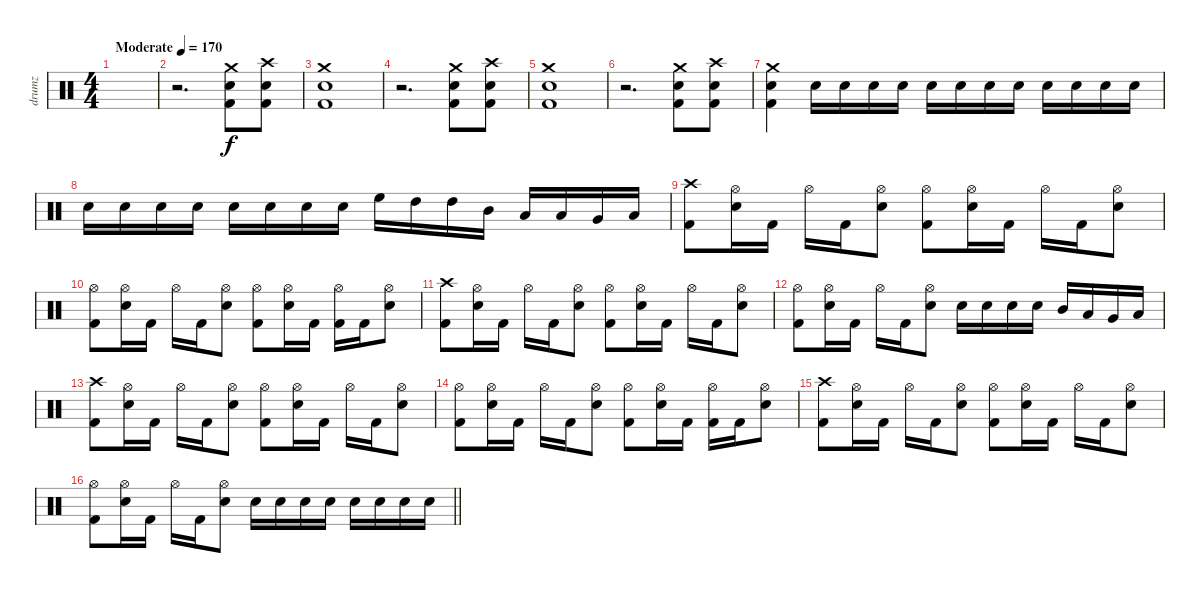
\track ("drumz" "drumz") {instrument percussion}
\staff {score}
\articulation defaults
\ts (4 4)
\tempo (170 "Moderate")
\clef neutral
\ks c
|
r.2{d} ("Crash medium (hit)" "Electric Snare (hit)" "Kick (hit) 2").8 ("Crash high (hit)" "Electric Snare (hit)" "Kick (hit) 2").8 |
("Crash medium (hit)" "Electric Snare (hit)" "Kick (hit) 2").1 |
r.2{d} ("Crash medium (hit)" "Electric Snare (hit)" "Kick (hit) 2").8 ("Crash high (hit)" "Electric Snare (hit)" "Kick (hit) 2").8 |
("Crash medium (hit)" "Electric Snare (hit)" "Kick (hit) 2").1 |
r.2{d} ("Crash medium (hit)" "Electric Snare (hit)" "Kick (hit) 2").8 ("Crash high (hit)" "Electric Snare (hit)" "Kick (hit) 2").8 |
("Crash medium (hit)" "Electric Snare (hit)" "Kick (hit) 2").4 "Electric Snare (hit)".16 "Electric Snare (hit)".16 "Electric Snare (hit)".16 "Electric Snare (hit)".16 "Electric Snare (hit)".16 "Electric Snare (hit)".16 "Electric Snare (hit)".16 "Electric Snare (hit)".16 "Electric Snare (hit)".16 "Electric Snare (hit)".16 "Electric Snare (hit)".16 "Electric Snare (hit)".16 |
"Electric Snare (hit)".16 "Electric Snare (hit)".16 "Electric Snare (hit)".16 "Electric Snare (hit)".16 "Electric Snare (hit)".16 "Electric Snare (hit)".16 "Electric Snare (hit)".16 "Electric Snare (hit)".16 "High Floor Tom (hit)".16 "High Tom (hit)".16 "High Tom (hit)".16 "Mid Tom (hit)".16 "Low Tom (hit)".16 "Low Tom (hit)".16 "Very Low Tom (hit)".16 "Low Floor Tom (hit)".16 |
("Crash high (hit)" "Kick (hit) 2").8 ("Hi-Hat (open)" "Electric Snare (hit)").16 "Kick (hit) 2".16 "Hi-Hat (open)".16 "Kick (hit) 2".16 ("Hi-Hat (open)" "Electric Snare (hit)").8 ("Hi-Hat (open)" "Kick (hit) 2").8 ("Hi-Hat (open)" "Electric Snare (hit)").16 "Kick (hit) 2".16 "Hi-Hat (open)".16 "Kick (hit) 2".16 ("Hi-Hat (open)" "Electric Snare (hit)").8 |
("Hi-Hat (open)" "Kick (hit) 2").8 ("Hi-Hat (open)" "Electric Snare (hit)").16 "Kick (hit) 2".16 "Hi-Hat (open)".16 "Kick (hit) 2".16 ("Hi-Hat (open)" "Electric Snare (hit)").8 ("Hi-Hat (open)" "Kick (hit) 2").8 ("Hi-Hat (open)" "Electric Snare (hit)").16 "Kick (hit) 2".16 ("Hi-Hat (open)" "Kick (hit) 2").16 "Kick (hit) 2".16 ("Hi-Hat (open)" "Electric Snare (hit)").8 |
("Crash high (hit)" "Kick (hit) 2").8 ("Hi-Hat (open)" "Electric Snare (hit)").16 "Kick (hit) 2".16 "Hi-Hat (open)".16 "Kick (hit) 2".16 ("Hi-Hat (open)" "Electric Snare (hit)").8 ("Hi-Hat (open)" "Kick (hit) 2").8 ("Hi-Hat (open)" "Electric Snare (hit)").16 "Kick (hit) 2".16 "Hi-Hat (open)".16 "Kick (hit) 2".16 ("Hi-Hat (open)" "Electric Snare (hit)").8 |
("Hi-Hat (open)" "Kick (hit) 2").8 ("Hi-Hat (open)" "Electric Snare (hit)").16 "Kick (hit) 2".16 "Hi-Hat (open)".16 "Kick (hit) 2".16 ("Hi-Hat (open)" "Electric Snare (hit)").8 "Electric Snare (hit)".16 "Electric Snare (hit)".16 "Electric Snare (hit)".16 "Electric Snare (hit)".16 "Mid Tom (hit)".16 "Low Tom (hit)".16 "Very Low Tom (hit)".16 "Low Floor Tom (hit)".16 |
("Crash high (hit)" "Kick (hit) 2").8 ("Hi-Hat (open)" "Electric Snare (hit)").16 "Kick (hit) 2".16 "Hi-Hat (open)".16 "Kick (hit) 2".16 ("Hi-Hat (open)" "Electric Snare (hit)").8 ("Hi-Hat (open)" "Kick (hit) 2").8 ("Hi-Hat (open)" "Electric Snare (hit)").16 "Kick (hit) 2".16 "Hi-Hat (open)".16 "Kick (hit) 2".16 ("Hi-Hat (open)" "Electric Snare (hit)").8 |
("Hi-Hat (open)" "Kick (hit) 2").8 ("Hi-Hat (open)" "Electric Snare (hit)").16 "Kick (hit) 2".16 "Hi-Hat (open)".16 "Kick (hit) 2".16 ("Hi-Hat (open)" "Electric Snare (hit)").8 ("Hi-Hat (open)" "Kick (hit) 2").8 ("Hi-Hat (open)" "Electric Snare (hit)").16 "Kick (hit) 2".16 ("Hi-Hat (open)" "Kick (hit) 2").16 "Kick (hit) 2".16 ("Hi-Hat (open)" "Electric Snare (hit)").8 |
("Crash high (hit)" "Kick (hit) 2").8 ("Hi-Hat (open)" "Electric Snare (hit)").16 "Kick (hit) 2".16 "Hi-Hat (open)".16 "Kick (hit) 2".16 ("Hi-Hat (open)" "Electric Snare (hit)").8 ("Hi-Hat (open)" "Kick (hit) 2").8 ("Hi-Hat (open)" "Electric Snare (hit)").16 "Kick (hit) 2".16 "Hi-Hat (open)".16 "Kick (hit) 2".16 ("Hi-Hat (open)" "Electric Snare (hit)").8 |
\barLineRight lightlight
("Hi-Hat (open)" "Kick (hit) 2").8 ("Hi-Hat (open)" "Electric Snare (hit)").16 "Kick (hit) 2".16 "Hi-Hat (open)".16 "Kick (hit) 2".16 ("Hi-Hat (open)" "Electric Snare (hit)").8 "Electric Snare (hit)".16 "Electric Snare (hit)".16 "Electric Snare (hit)".16 "Electric Snare (hit)".16 "Electric Snare (hit)".16 "Electric Snare (hit)".16 "Electric Snare (hit)".16 "Electric Snare (hit)".16
